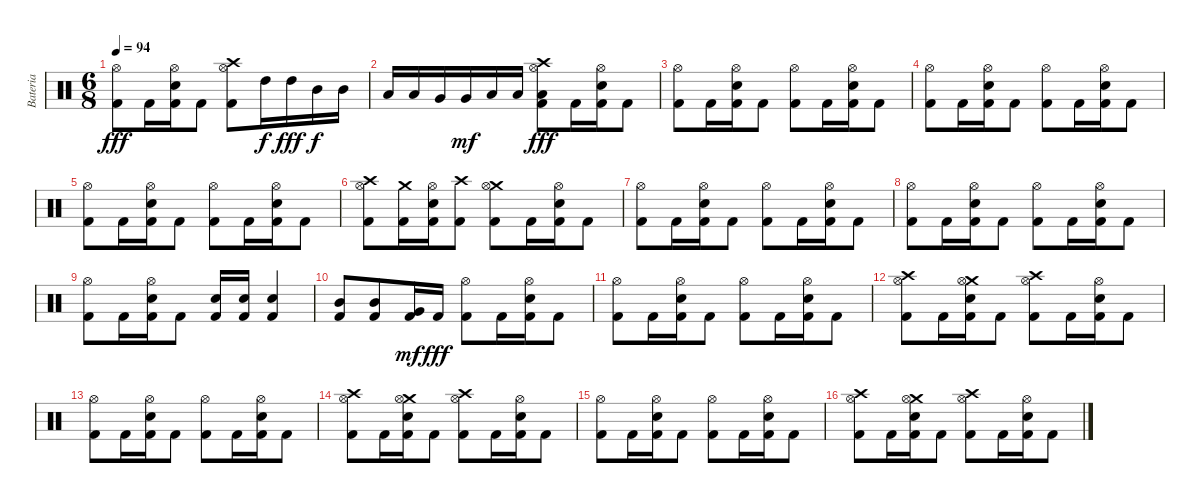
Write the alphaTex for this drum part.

\track ("Bateria" "Bateria") {instrument percussion}
\staff {score}
\articulation defaults
\ts (6 8)
\tempo 94
\clef neutral
\ks c
("Hi-Hat (open)" "Kick (hit) 2").8{dy fff} "Kick (hit) 2".16 ("Hi-Hat (open)" "Electric Snare (hit)" "Kick (hit) 2").16 "Kick (hit) 2".8 ("Crash high (hit)" "Hi-Hat (open)" "Kick (hit) 2").8 "High Tom (hit)".16{dy f} "High Tom (hit)".16{dy fff} "Mid Tom (hit)".16{dy f} "Mid Tom (hit)".16 |
"Low Tom (hit)".16 "Low Tom (hit)".16 "Very Low Tom (hit)".16 "Very Low Tom (hit)".16{dy mf} "Low Floor Tom (hit)".16 "Low Floor Tom (hit)".16 ("Crash high (hit)" "Hi-Hat (open)" "Low Floor Tom (hit)" "Kick (hit) 2").8{dy fff} "Kick (hit) 2".16 ("Hi-Hat (open)" "Electric Snare (hit)" "Kick (hit) 2").16 "Kick (hit) 2".8 |
("Hi-Hat (open)" "Kick (hit) 2").8 "Kick (hit) 2".16 ("Hi-Hat (open)" "Electric Snare (hit)" "Kick (hit) 2").16 "Kick (hit) 2".8 ("Hi-Hat (open)" "Kick (hit) 2").8 "Kick (hit) 2".16 ("Hi-Hat (open)" "Electric Snare (hit)" "Kick (hit) 2").16 "Kick (hit) 2".8 |
("Hi-Hat (open)" "Kick (hit) 2").8 "Kick (hit) 2".16 ("Hi-Hat (open)" "Electric Snare (hit)" "Kick (hit) 2").16 "Kick (hit) 2".8 ("Hi-Hat (open)" "Kick (hit) 2").8 "Kick (hit) 2".16 ("Hi-Hat (open)" "Electric Snare (hit)" "Kick (hit) 2").16 "Kick (hit) 2".8 |
("Hi-Hat (open)" "Kick (hit) 2").8 "Kick (hit) 2".16 ("Hi-Hat (open)" "Electric Snare (hit)" "Kick (hit) 2").16 "Kick (hit) 2".8 ("Hi-Hat (open)" "Kick (hit) 2").8 "Kick (hit) 2".16 ("Hi-Hat (open)" "Electric Snare (hit)" "Kick (hit) 2").16 "Kick (hit) 2".8 |
("Crash high (hit)" "Hi-Hat (open)" "Kick (hit) 2").8 ("Crash medium (hit)" "Kick (hit) 2").16 ("Hi-Hat (open)" "Electric Snare (hit)" "Kick (hit) 2").16 ("Crash high (hit)" "Kick (hit) 2").8 ("Crash medium (hit)" "Hi-Hat (open)" "Kick (hit) 2").8 "Kick (hit) 2".16 ("Hi-Hat (open)" "Electric Snare (hit)" "Kick (hit) 2").16 "Kick (hit) 2".8 |
("Hi-Hat (open)" "Kick (hit) 2").8 "Kick (hit) 2".16 ("Hi-Hat (open)" "Electric Snare (hit)" "Kick (hit) 2").16 "Kick (hit) 2".8 ("Hi-Hat (open)" "Kick (hit) 2").8 "Kick (hit) 2".16 ("Hi-Hat (open)" "Electric Snare (hit)" "Kick (hit) 2").16 "Kick (hit) 2".8 |
("Hi-Hat (open)" "Kick (hit) 2").8 "Kick (hit) 2".16 ("Hi-Hat (open)" "Electric Snare (hit)" "Kick (hit) 2").16 "Kick (hit) 2".8 ("Hi-Hat (open)" "Kick (hit) 2").8 "Kick (hit) 2".16 ("Hi-Hat (open)" "Electric Snare (hit)" "Kick (hit) 2").16 "Kick (hit) 2".8 |
("Hi-Hat (open)" "Kick (hit) 2").8 "Kick (hit) 2".16 ("Hi-Hat (open)" "Electric Snare (hit)" "Kick (hit) 2").16 "Kick (hit) 2".8 ("Electric Snare (hit)" "Kick (hit) 2").16 ("Electric Snare (hit)" "Kick (hit) 2").16 ("Electric Snare (hit)" "Kick (hit) 2").4 |
("Mid Tom (hit)" "Kick (hit) 2").8 ("Mid Tom (hit)" "Kick (hit) 2").8 ("Very Low Tom (hit)" "Kick (hit) 2").16{dy mf} "Kick (hit) 2".16{dy fff} ("Hi-Hat (open)" "Kick (hit) 2").8 "Kick (hit) 2".16 ("Hi-Hat (open)" "Electric Snare (hit)" "Kick (hit) 2").16 "Kick (hit) 2".8 |
("Hi-Hat (open)" "Kick (hit) 2").8 "Kick (hit) 2".16 ("Hi-Hat (open)" "Electric Snare (hit)" "Kick (hit) 2").16 "Kick (hit) 2".8 ("Hi-Hat (open)" "Kick (hit) 2").8 "Kick (hit) 2".16 ("Hi-Hat (open)" "Electric Snare (hit)" "Kick (hit) 2").16 "Kick (hit) 2".8 |
("Crash high (hit)" "Hi-Hat (open)" "Kick (hit) 2").8 "Kick (hit) 2".16 ("Crash medium (hit)" "Hi-Hat (open)" "Electric Snare (hit)" "Kick (hit) 2").16 "Kick (hit) 2".8 ("Crash high (hit)" "Hi-Hat (open)" "Kick (hit) 2").8 "Kick (hit) 2".16 ("Hi-Hat (open)" "Electric Snare (hit)" "Kick (hit) 2").16 "Kick (hit) 2".8 |
("Hi-Hat (open)" "Kick (hit) 2").8 "Kick (hit) 2".16 ("Hi-Hat (open)" "Electric Snare (hit)" "Kick (hit) 2").16 "Kick (hit) 2".8 ("Hi-Hat (open)" "Kick (hit) 2").8 "Kick (hit) 2".16 ("Hi-Hat (open)" "Electric Snare (hit)" "Kick (hit) 2").16 "Kick (hit) 2".8 |
("Crash high (hit)" "Hi-Hat (open)" "Kick (hit) 2").8 "Kick (hit) 2".16 ("Crash medium (hit)" "Hi-Hat (open)" "Electric Snare (hit)" "Kick (hit) 2").16 "Kick (hit) 2".8 ("Crash high (hit)" "Hi-Hat (open)" "Kick (hit) 2").8 "Kick (hit) 2".16 ("Hi-Hat (open)" "Electric Snare (hit)" "Kick (hit) 2").16 "Kick (hit) 2".8 |
("Hi-Hat (open)" "Kick (hit) 2").8 "Kick (hit) 2".16 ("Hi-Hat (open)" "Electric Snare (hit)" "Kick (hit) 2").16 "Kick (hit) 2".8 ("Hi-Hat (open)" "Kick (hit) 2").8 "Kick (hit) 2".16 ("Hi-Hat (open)" "Electric Snare (hit)" "Kick (hit) 2").16 "Kick (hit) 2".8 |
("Crash high (hit)" "Hi-Hat (open)" "Kick (hit) 2").8 "Kick (hit) 2".16 ("Crash medium (hit)" "Hi-Hat (open)" "Electric Snare (hit)" "Kick (hit) 2").16 "Kick (hit) 2".8 ("Crash high (hit)" "Hi-Hat (open)" "Kick (hit) 2").8 "Kick (hit) 2".16 ("Hi-Hat (open)" "Electric Snare (hit)" "Kick (hit) 2").16 "Kick (hit) 2".8
